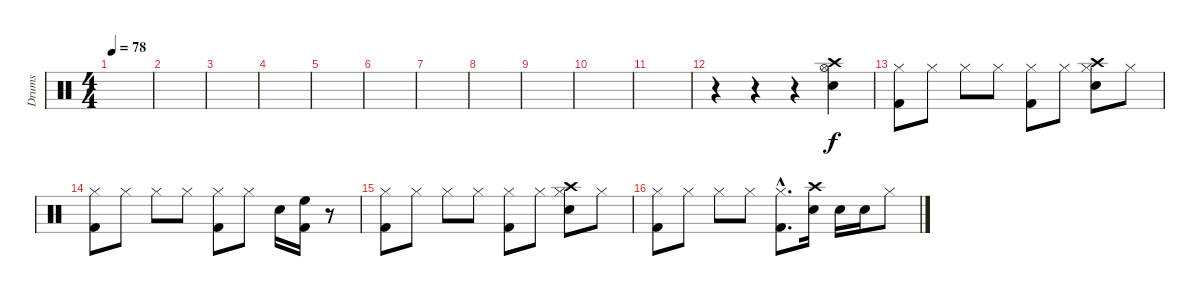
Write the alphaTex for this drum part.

\track ("Drums" "Drums") {instrument percussion}
\staff {score}
\articulation defaults
\ts (4 4)
\tempo 78
\clef neutral
\ks c
|
|
|
|
|
|
|
|
|
|
|
r.4 r.4 r.4 ("Crash high (hit)" "Hi-Hat (open)" "Snare (hit) 2").4 |
("Hi-Hat (closed)" "Kick (hit) 2").8 "Hi-Hat (closed)".8 "Hi-Hat (closed)".8 "Hi-Hat (closed)".8 ("Hi-Hat (closed)" "Kick (hit) 2").8 "Hi-Hat (closed)".8 ("Crash high (hit)" "Hi-Hat (closed)" "Snare (hit) 2").8 "Hi-Hat (closed)".8 |
("Hi-Hat (closed)" "Kick (hit) 2").8 "Hi-Hat (closed)".8 "Hi-Hat (closed)".8 "Hi-Hat (closed)".8 ("Hi-Hat (closed)" "Kick (hit) 2").8 "Hi-Hat (closed)".8 "Snare (hit) 2".16 ("High Floor Tom (hit)" "Kick (hit) 2").16 r.8 |
("Hi-Hat (closed)" "Kick (hit) 2").8 "Hi-Hat (closed)".8 "Hi-Hat (closed)".8 "Hi-Hat (closed)".8 ("Hi-Hat (closed)" "Kick (hit) 2").8 "Hi-Hat (closed)".8 ("Crash high (hit)" "Hi-Hat (closed)" "Snare (hit) 2").8 "Hi-Hat (closed)".8 |
("Hi-Hat (closed)" "Kick (hit) 2").8 "Hi-Hat (closed)".8 "Hi-Hat (closed)".8 "Hi-Hat (closed)".8 ("Hi-Hat (closed)"{hac} "Kick (hit) 2"{hac}).8{d} ("Crash high (hit)" "Snare (hit) 2").16 "Snare (hit) 2".16 "Snare (hit) 2".16 "Hi-Hat (closed)".8
